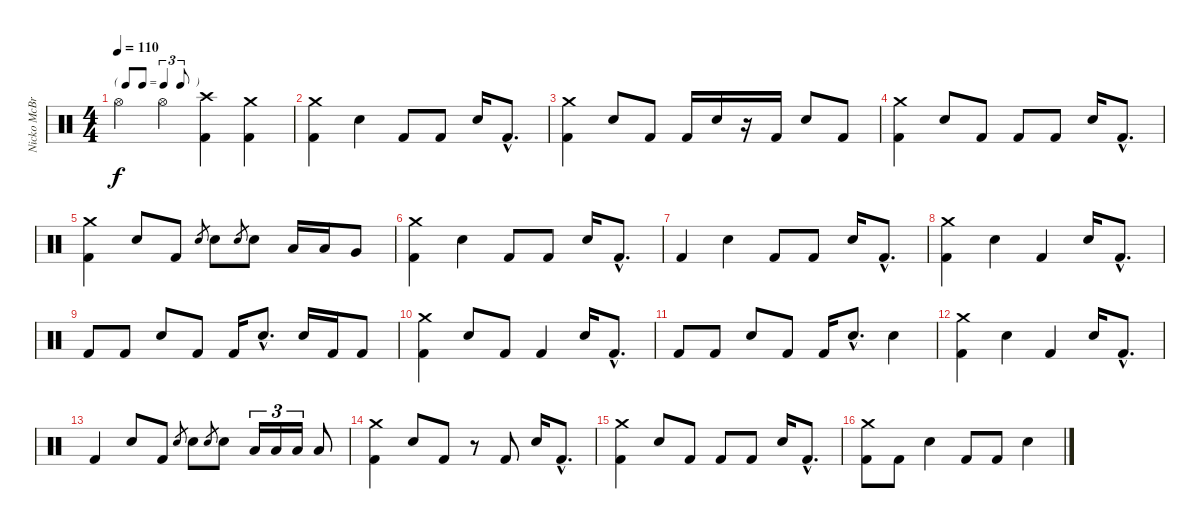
\track ("Nicko McBrain" "Nicko McBr") {instrument percussion}
\staff {score}
\articulation defaults
\ts (4 4)
\tf triplet8th
\tempo 110
\clef neutral
\ks c "Hi-Hat (open)".4{dy f} "Hi-Hat (open)".4
("Crash high (hit)" "Kick (hit) 2").4 ("Crash medium (hit)" "Kick (hit) 2").4 |
("Crash medium (hit)" "Kick (hit) 2").4 "Electric Snare (hit)".4 "Kick (hit) 2".8 "Kick (hit) 2".8 "Electric Snare (hit)".16 "Kick (hit) 2"{hac}.8{d} |
("Crash medium (hit)" "Kick (hit) 2").4 "Electric Snare (hit)".8 "Kick (hit) 2".8 "Kick (hit) 2".16 "Electric Snare (hit)".16 r.16 "Kick (hit) 2".16 "Electric Snare (hit)".8 "Kick (hit) 2".8 |
("Crash medium (hit)" "Kick (hit) 2").4 "Electric Snare (hit)".8 "Kick (hit) 2".8 "Kick (hit) 2".8 "Kick (hit) 2".8 "Electric Snare (hit)".16 "Kick (hit) 2"{hac}.8{d} |
("Crash medium (hit)" "Kick (hit) 2").4 "Electric Snare (hit)".8 "Kick (hit) 2".8 "Electric Snare (hit)".8{gr} "Electric Snare (hit)".8 "Electric Snare (hit)".8{gr} "Electric Snare (hit)".8 "Low Tom (hit)".16 "Low Tom (hit)".16 "Very Low Tom (hit)".8 |
("Crash medium (hit)" "Kick (hit) 2").4 "Electric Snare (hit)".4 "Kick (hit) 2".8 "Kick (hit) 2".8 "Electric Snare (hit)".16 "Kick (hit) 2"{hac}.8{d} |
"Kick (hit) 2".4 "Electric Snare (hit)".4 "Kick (hit) 2".8 "Kick (hit) 2".8 "Electric Snare (hit)".16 "Kick (hit) 2"{hac}.8{d} |
("Crash medium (hit)" "Kick (hit) 2").4 "Electric Snare (hit)".4 "Kick (hit) 2".4 "Electric Snare (hit)".16 "Kick (hit) 2"{hac}.8{d} |
"Kick (hit) 2".8 "Kick (hit) 2".8 "Electric Snare (hit)".8 "Kick (hit) 2".8 "Kick (hit) 2".16 "Electric Snare (hit)"{hac}.8{d} "Electric Snare (hit)".16 "Kick (hit) 2".16 "Kick (hit) 2".8 |
("Crash medium (hit)" "Kick (hit) 2").4 "Electric Snare (hit)".8 "Kick (hit) 2".8 "Kick (hit) 2".4 "Electric Snare (hit)".16 "Kick (hit) 2"{hac}.8{d} |
"Kick (hit) 2".8 "Kick (hit) 2".8 "Electric Snare (hit)".8 "Kick (hit) 2".8 "Kick (hit) 2".16 "Electric Snare (hit)"{hac}.8{d} "Electric Snare (hit)".4 |
("Crash medium (hit)" "Kick (hit) 2").4 "Electric Snare (hit)".4 "Kick (hit) 2".4 "Electric Snare (hit)".16 "Kick (hit) 2"{hac}.8{d} |
"Kick (hit) 2".4 "Electric Snare (hit)".8 "Kick (hit) 2".8 "Electric Snare (hit)".8{gr} "Electric Snare (hit)".8 "Electric Snare (hit)".8{gr} "Electric Snare (hit)".8 "Low Tom (hit)".16{tu (3 2)} "Low Tom (hit)".16{tu (3 2)} "Low Tom (hit)".16{tu (3 2)} "Low Tom (hit)".8 |
("Crash medium (hit)" "Kick (hit) 2").4 "Electric Snare (hit)".8 "Kick (hit) 2".8 r.8 "Kick (hit) 2".8 "Electric Snare (hit)".16 "Kick (hit) 2"{hac}.8{d} |
("Crash medium (hit)" "Kick (hit) 2").4 "Electric Snare (hit)".8 "Kick (hit) 2".8 "Kick (hit) 2".8 "Kick (hit) 2".8 "Electric Snare (hit)".16 "Kick (hit) 2"{hac}.8{d} |
("Crash medium (hit)" "Kick (hit) 2").8 "Kick (hit) 2".8 "Electric Snare (hit)".4 "Kick (hit) 2".8 "Kick (hit) 2".8 "Electric Snare (hit)".4
